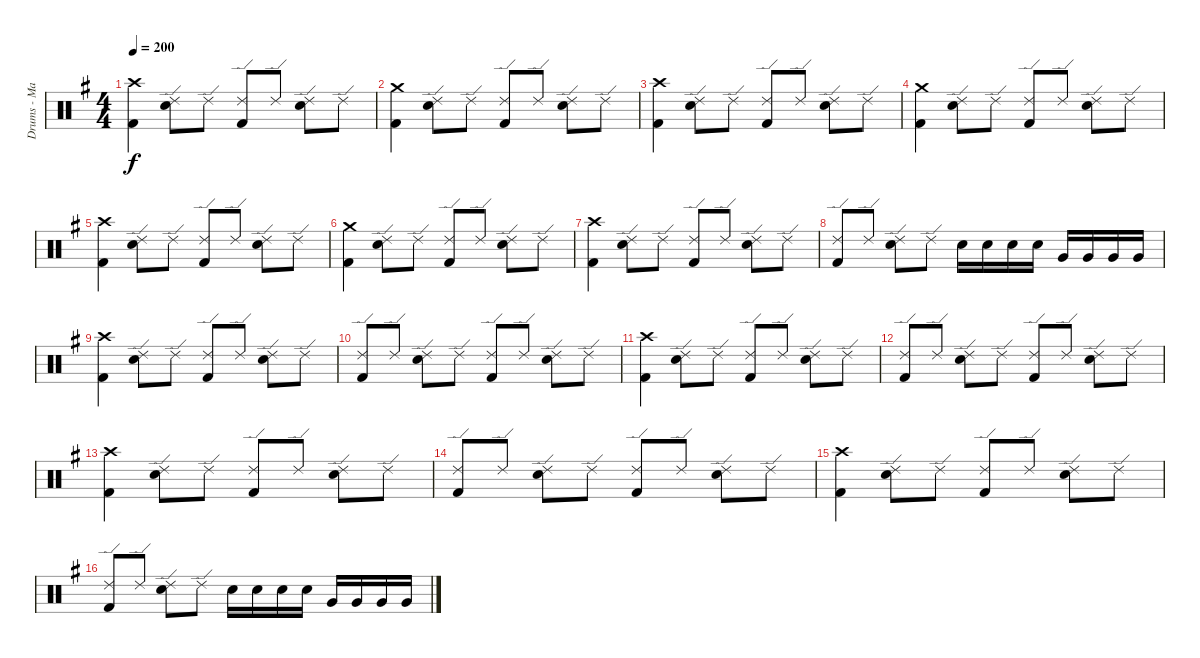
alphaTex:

\track ("Drums - Marky Ramone" "Drums - Ma") {instrument percussion}
\staff {score}
\articulation defaults
\ts (4 4)
\tempo 200
\clef neutral
\ks g
("Crash high (hit)" "Kick (hit) 2").4{dy f} ("Ride (edge) 2" "Snare (hit) 2").8 "Ride (edge) 2".8 ("Ride (edge) 2" "Kick (hit) 2").8 "Ride (edge) 2".8 ("Ride (edge) 2" "Snare (hit) 2").8 "Ride (edge) 2".8 |
("Crash medium (hit)" "Kick (hit) 2").4 ("Ride (edge) 2" "Snare (hit) 2").8 "Ride (edge) 2".8 ("Ride (edge) 2" "Kick (hit) 2").8 "Ride (edge) 2".8 ("Ride (edge) 2" "Snare (hit) 2").8 "Ride (edge) 2".8 |
("Crash high (hit)" "Kick (hit) 2").4 ("Ride (edge) 2" "Snare (hit) 2").8 "Ride (edge) 2".8 ("Ride (edge) 2" "Kick (hit) 2").8 "Ride (edge) 2".8 ("Ride (edge) 2" "Snare (hit) 2").8 "Ride (edge) 2".8 |
("Crash medium (hit)" "Kick (hit) 2").4 ("Ride (edge) 2" "Snare (hit) 2").8 "Ride (edge) 2".8 ("Ride (edge) 2" "Kick (hit) 2").8 "Ride (edge) 2".8 ("Ride (edge) 2" "Snare (hit) 2").8 "Ride (edge) 2".8 |
("Crash high (hit)" "Kick (hit) 2").4 ("Ride (edge) 2" "Snare (hit) 2").8 "Ride (edge) 2".8 ("Ride (edge) 2" "Kick (hit) 2").8 "Ride (edge) 2".8 ("Ride (edge) 2" "Snare (hit) 2").8 "Ride (edge) 2".8 |
("Crash medium (hit)" "Kick (hit) 2").4 ("Ride (edge) 2" "Snare (hit) 2").8 "Ride (edge) 2".8 ("Ride (edge) 2" "Kick (hit) 2").8 "Ride (edge) 2".8 ("Ride (edge) 2" "Snare (hit) 2").8 "Ride (edge) 2".8 |
("Crash high (hit)" "Kick (hit) 2").4 ("Ride (edge) 2" "Snare (hit) 2").8 "Ride (edge) 2".8 ("Ride (edge) 2" "Kick (hit) 2").8 "Ride (edge) 2".8 ("Ride (edge) 2" "Snare (hit) 2").8 "Ride (edge) 2".8 |
("Ride (edge) 2" "Kick (hit) 2").8 "Ride (edge) 2".8 ("Ride (edge) 2" "Snare (hit) 2").8 "Ride (edge) 2".8 "Snare (hit) 2".16 "Snare (hit) 2".16 "Snare (hit) 2".16 "Snare (hit) 2".16 "Very Low Tom (hit)".16 "Very Low Tom (hit)".16 "Very Low Tom (hit)".16 "Very Low Tom (hit)".16 |
("Crash high (hit)" "Kick (hit) 2").4 ("Ride (edge) 2" "Snare (hit) 2").8 "Ride (edge) 2".8 ("Ride (edge) 2" "Kick (hit) 2").8 "Ride (edge) 2".8 ("Ride (edge) 2" "Snare (hit) 2").8 "Ride (edge) 2".8 |
("Ride (edge) 2" "Kick (hit) 2").8 "Ride (edge) 2".8 ("Ride (edge) 2" "Snare (hit) 2").8 "Ride (edge) 2".8 ("Ride (edge) 2" "Kick (hit) 2").8 "Ride (edge) 2".8 ("Ride (edge) 2" "Snare (hit) 2").8 "Ride (edge) 2".8 |
("Crash high (hit)" "Kick (hit) 2").4 ("Ride (edge) 2" "Snare (hit) 2").8 "Ride (edge) 2".8 ("Ride (edge) 2" "Kick (hit) 2").8 "Ride (edge) 2".8 ("Ride (edge) 2" "Snare (hit) 2").8 "Ride (edge) 2".8 |
("Ride (edge) 2" "Kick (hit) 2").8 "Ride (edge) 2".8 ("Ride (edge) 2" "Snare (hit) 2").8 "Ride (edge) 2".8 ("Ride (edge) 2" "Kick (hit) 2").8 "Ride (edge) 2".8 ("Ride (edge) 2" "Snare (hit) 2").8 "Ride (edge) 2".8 |
("Crash high (hit)" "Kick (hit) 2").4 ("Ride (edge) 2" "Snare (hit) 2").8 "Ride (edge) 2".8 ("Ride (edge) 2" "Kick (hit) 2").8 "Ride (edge) 2".8 ("Ride (edge) 2" "Snare (hit) 2").8 "Ride (edge) 2".8 |
("Ride (edge) 2" "Kick (hit) 2").8 "Ride (edge) 2".8 ("Ride (edge) 2" "Snare (hit) 2").8 "Ride (edge) 2".8 ("Ride (edge) 2" "Kick (hit) 2").8 "Ride (edge) 2".8 ("Ride (edge) 2" "Snare (hit) 2").8 "Ride (edge) 2".8 |
("Crash high (hit)" "Kick (hit) 2").4 ("Ride (edge) 2" "Snare (hit) 2").8 "Ride (edge) 2".8 ("Ride (edge) 2" "Kick (hit) 2").8 "Ride (edge) 2".8 ("Ride (edge) 2" "Snare (hit) 2").8 "Ride (edge) 2".8 |
("Ride (edge) 2" "Kick (hit) 2").8 "Ride (edge) 2".8 ("Ride (edge) 2" "Snare (hit) 2").8 "Ride (edge) 2".8 "Snare (hit) 2".16 "Snare (hit) 2".16 "Snare (hit) 2".16 "Snare (hit) 2".16 "Very Low Tom (hit)".16 "Very Low Tom (hit)".16 "Very Low Tom (hit)".16 "Very Low Tom (hit)".16
